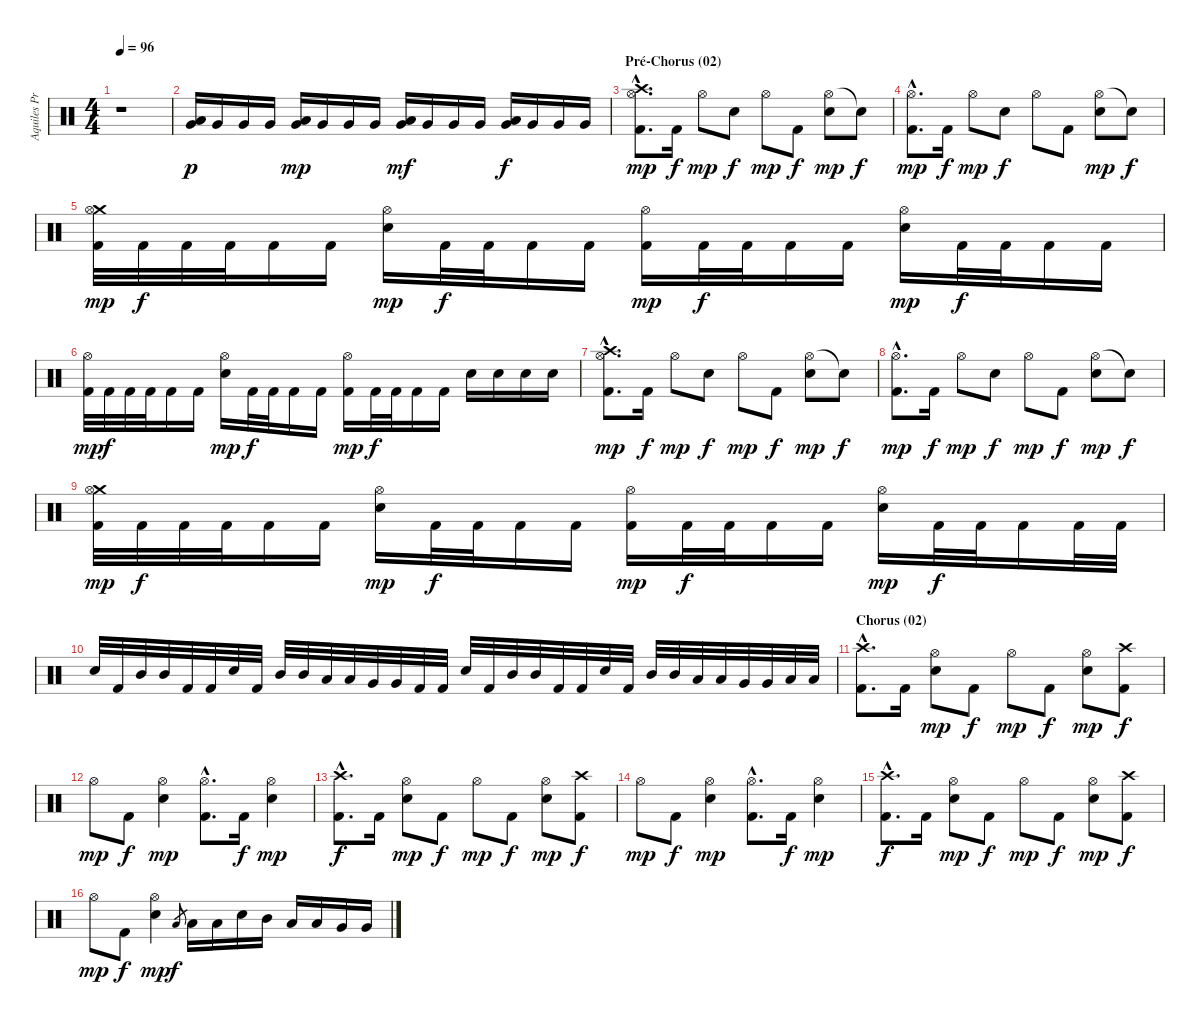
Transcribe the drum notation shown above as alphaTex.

\track ("Aquiles Priester" "Aquiles Pr") {instrument percussion}
\staff {score}
\articulation defaults
\ts (4 4)
\tempo 96
\clef neutral
\ks c
r.1{dy pp} |
("Low Tom (hit)" "Very Low Tom (hit)").16{dy p} "Very Low Tom (hit)".16 "Very Low Tom (hit)".16 "Very Low Tom (hit)".16 ("Low Tom (hit)" "Very Low Tom (hit)").16{dy mp} "Very Low Tom (hit)".16 "Very Low Tom (hit)".16 "Very Low Tom (hit)".16 ("Low Tom (hit)" "Very Low Tom (hit)").16{dy mf} "Very Low Tom (hit)".16 "Very Low Tom (hit)".16 "Very Low Tom (hit)".16 ("Low Tom (hit)" "Very Low Tom (hit)").16{dy f} "Very Low Tom (hit)".16 "Very Low Tom (hit)".16 "Very Low Tom (hit)".16 |
\section ("" "Pré-Chorus (02)")
("Crash high (hit)"{hac} "Hi-Hat (open)"{hac} "Kick (hit) 2"{hac}).8{d dy mp} "Kick (hit) 2".16{dy f} "Hi-Hat (open)".8{dy mp} "Snare (hit) 2".8{dy f} "Hi-Hat (open)".8{dy mp} "Kick (hit) 2".8{dy f} ("Hi-Hat (open)" "Snare (hit) 2").8{dy mp} "Snare (hit)"{t}.8{dy f} |
("Hi-Hat (open)"{hac} "Kick (hit) 2"{hac}).8{d dy mp} "Kick (hit) 2".16{dy f} "Hi-Hat (open)".8{dy mp} "Snare (hit) 2".8{dy f} "Hi-Hat (open)".8 "Kick (hit) 2".8 ("Hi-Hat (open)" "Snare (hit) 2").8{dy mp} "Snare (hit)"{t}.8{dy f} |
("Crash medium (hit)" "Hi-Hat (open)" "Kick (hit) 2").32{dy mp} "Kick (hit) 2".32{dy f} "Kick (hit) 2".32 "Kick (hit) 2".32 "Kick (hit) 2".16 "Kick (hit) 2".16 ("Hi-Hat (open)" "Snare (hit) 2").16{dy mp} "Kick (hit) 2".32{dy f} "Kick (hit) 2".32 "Kick (hit) 2".16 "Kick (hit) 2".16 ("Hi-Hat (open)" "Kick (hit) 2").16{dy mp} "Kick (hit) 2".32{dy f} "Kick (hit) 2".32 "Kick (hit) 2".16 "Kick (hit) 2".16 ("Hi-Hat (open)" "Snare (hit) 2").16{dy mp} "Kick (hit) 2".32{dy f} "Kick (hit) 2".32 "Kick (hit) 2".16 "Kick (hit) 2".16 |
("Hi-Hat (open)" "Kick (hit) 2").32{dy mp} "Kick (hit) 2".32{dy f} "Kick (hit) 2".32 "Kick (hit) 2".32 "Kick (hit) 2".16 "Kick (hit) 2".16 ("Hi-Hat (open)" "Snare (hit) 2").16{dy mp} "Kick (hit) 2".32{dy f} "Kick (hit) 2".32 "Kick (hit) 2".16 "Kick (hit) 2".16 ("Hi-Hat (open)" "Kick (hit) 2").16{dy mp} "Kick (hit) 2".32{dy f} "Kick (hit) 2".32 "Kick (hit) 2".16 "Kick (hit) 2".16 "Snare (hit) 2".16 "Snare (hit) 2".16 "Snare (hit) 2".16 "Snare (hit) 2".16 |
("Crash high (hit)"{hac} "Hi-Hat (open)"{hac} "Kick (hit) 2"{hac}).8{d dy mp} "Kick (hit) 2".16{dy f} "Hi-Hat (open)".8{dy mp} "Snare (hit) 2".8{dy f} "Hi-Hat (open)".8{dy mp} "Kick (hit) 2".8{dy f} ("Hi-Hat (open)" "Snare (hit) 2").8{dy mp} "Snare (hit)"{t}.8{dy f} |
("Hi-Hat (open)"{hac} "Kick (hit) 2"{hac}).8{d dy mp} "Kick (hit) 2".16{dy f} "Hi-Hat (open)".8{dy mp} "Snare (hit) 2".8{dy f} "Hi-Hat (open)".8{dy mp} "Kick (hit) 2".8{dy f} ("Hi-Hat (open)" "Snare (hit) 2").8{dy mp} "Snare (hit)"{t}.8{dy f} |
("Crash medium (hit)" "Hi-Hat (open)" "Kick (hit) 2").32{dy mp} "Kick (hit) 2".32{dy f} "Kick (hit) 2".32 "Kick (hit) 2".32 "Kick (hit) 2".16 "Kick (hit) 2".16 ("Hi-Hat (open)" "Snare (hit) 2").16{dy mp} "Kick (hit) 2".32{dy f} "Kick (hit) 2".32 "Kick (hit) 2".16 "Kick (hit) 2".16 ("Hi-Hat (open)" "Kick (hit) 2").16{dy mp} "Kick (hit) 2".32{dy f} "Kick (hit) 2".32 "Kick (hit) 2".16 "Kick (hit) 2".16 ("Hi-Hat (open)" "Snare (hit) 2").16{dy mp} "Kick (hit) 2".32{dy f} "Kick (hit) 2".32 "Kick (hit) 2".16 "Kick (hit) 2".32 "Kick (hit) 2".32 |
"Snare (hit) 2".32 "Kick (hit) 2".32 "Mid Tom (hit)".32 "Mid Tom (hit)".32 "Kick (hit) 2".32 "Kick (hit) 2".32 "Snare (hit) 2".32 "Kick (hit) 2".32 "Mid Tom (hit)".32 "Mid Tom (hit)".32 "Low Tom (hit)".32 "Low Tom (hit)".32 "Very Low Tom (hit)".32 "Very Low Tom (hit)".32 "Kick (hit) 2".32 "Kick (hit) 2".32 "Snare (hit) 2".32 "Kick (hit) 2".32 "Mid Tom (hit)".32 "Mid Tom (hit)".32 "Kick (hit) 2".32 "Kick (hit) 2".32 "Snare (hit) 2".32 "Kick (hit) 2".32 "Mid Tom (hit)".32 "Mid Tom (hit)".32 "Low Tom (hit)".32 "Low Tom (hit)".32 "Very Low Tom (hit)".32 "Very Low Tom (hit)".32 "Low Floor Tom (hit)".32 "Low Floor Tom (hit)".32 |
\section ("" "Chorus (02)")
("Crash high (hit)"{hac} "Kick (hit) 2"{hac}).8{d} "Kick (hit) 2".16 ("Hi-Hat (open)" "Snare (hit) 2").8{dy mp} "Kick (hit) 2".8{dy f} "Hi-Hat (open)".8{dy mp} "Kick (hit) 2".8{dy f} ("Hi-Hat (open)" "Snare (hit) 2").8{dy mp} ("Crash high (hit)" "Kick (hit) 2").8{dy f} |
"Hi-Hat (open)".8{dy mp} "Kick (hit) 2".8{dy f} ("Hi-Hat (open)" "Snare (hit) 2").4{dy mp} ("Hi-Hat (open)"{hac} "Kick (hit) 2"{hac}).8{d} "Kick (hit) 2".16{dy f} ("Hi-Hat (open)" "Snare (hit) 2").4{dy mp} |
("Crash high (hit)"{hac} "Kick (hit) 2"{hac}).8{d dy f} "Kick (hit) 2".16 ("Hi-Hat (open)" "Snare (hit) 2").8{dy mp} "Kick (hit) 2".8{dy f} "Hi-Hat (open)".8{dy mp} "Kick (hit) 2".8{dy f} ("Hi-Hat (open)" "Snare (hit) 2").8{dy mp} ("Crash high (hit)" "Kick (hit) 2").8{dy f} |
"Hi-Hat (open)".8{dy mp} "Kick (hit) 2".8{dy f} ("Hi-Hat (open)" "Snare (hit) 2").4{dy mp} ("Hi-Hat (open)"{hac} "Kick (hit) 2"{hac}).8{d} "Kick (hit) 2".16{dy f} ("Hi-Hat (open)" "Snare (hit) 2").4{dy mp} |
("Crash high (hit)"{hac} "Kick (hit) 2"{hac}).8{d dy f} "Kick (hit) 2".16 ("Hi-Hat (open)" "Snare (hit) 2").8{dy mp} "Kick (hit) 2".8{dy f} "Hi-Hat (open)".8{dy mp} "Kick (hit) 2".8{dy f} ("Hi-Hat (open)" "Snare (hit) 2").8{dy mp} ("Crash high (hit)" "Kick (hit) 2").8{dy f} |
"Hi-Hat (open)".8{dy mp} "Kick (hit) 2".8{dy f} ("Hi-Hat (open)" "Snare (hit) 2").4{dy mp} "Low Tom (hit)".8{gr dy f} "Low Tom (hit)".16 "Low Tom (hit)".16 "Snare (hit) 2".16 "Mid Tom (hit)".16 "Low Tom (hit)".16 "Low Tom (hit)".16 "Very Low Tom (hit)".16 "Very Low Tom (hit)".16
